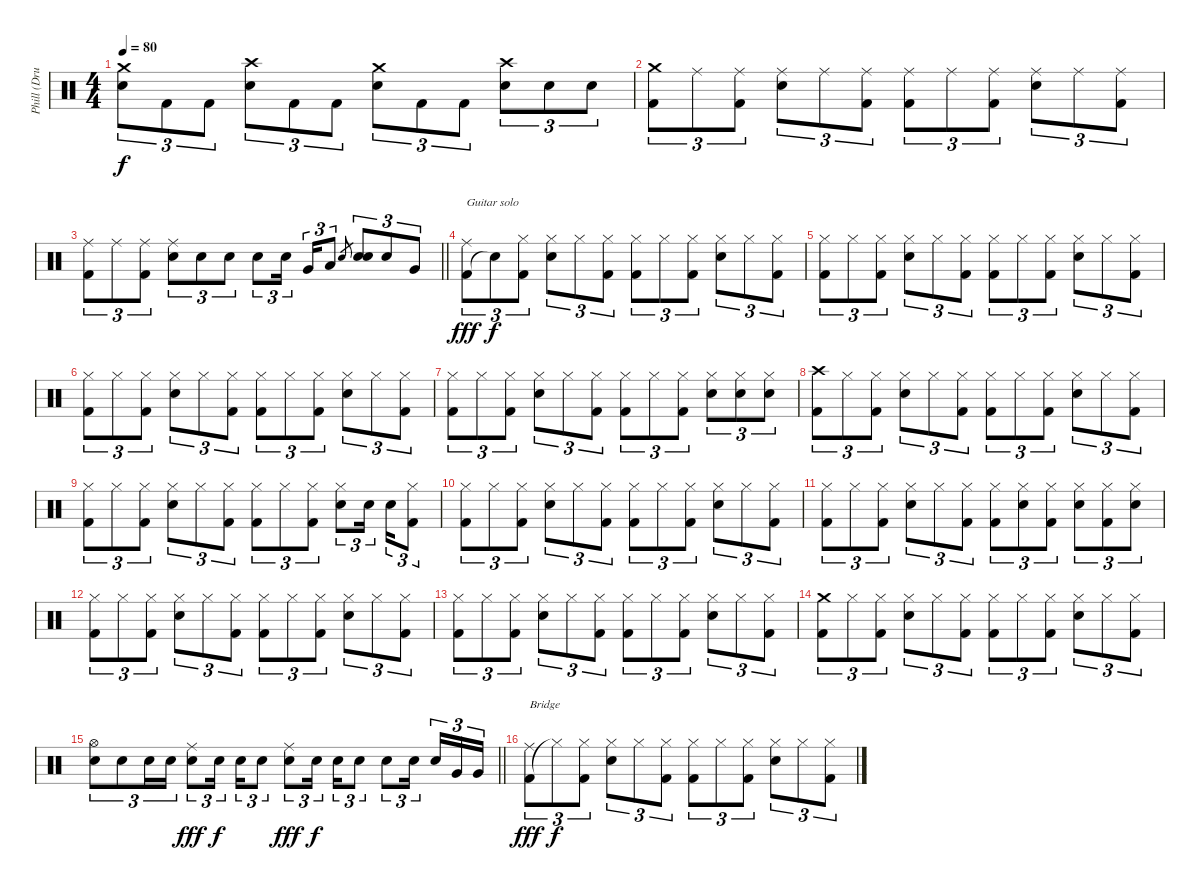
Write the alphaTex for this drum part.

\track ("Phill (Drums)" "Phill (Dru") {instrument percussion}
\staff {score}
\articulation defaults
\ts (4 4)
\tempo 80
\clef neutral
\ks c
("Electric Snare (hit)" "Crash medium (hit)").8{tu (3 2) dy f} "Kick (hit) 2".8{tu (3 2)} "Kick (hit) 2".8{tu (3 2)} ("Electric Snare (hit)" "Crash high (hit)").8{tu (3 2)} "Kick (hit) 2".8{tu (3 2)} "Kick (hit) 2".8{tu (3 2)} ("Electric Snare (hit)" "Crash medium (hit)").8{tu (3 2)} "Kick (hit) 2".8{tu (3 2)} "Kick (hit) 2".8{tu (3 2)} ("Electric Snare (hit)" "Crash high (hit)").8{tu (3 2)} "Electric Snare (hit)".8{tu (3 2)} "Electric Snare (hit)".8{tu (3 2)} |
("Kick (hit) 2" "Crash medium (hit)").8{tu (3 2)} "Ride (middle)".8{tu (3 2)} ("Kick (hit) 2" "Ride (middle)").8{tu (3 2)} ("Electric Snare (hit)" "Ride (middle)").8{tu (3 2)} "Ride (middle)".8{tu (3 2)} ("Kick (hit) 2" "Ride (middle)").8{tu (3 2)} ("Kick (hit) 2" "Ride (middle)").8{tu (3 2)} "Ride (middle)".8{tu (3 2)} ("Kick (hit) 2" "Ride (middle)").8{tu (3 2)} ("Electric Snare (hit)" "Ride (middle)").8{tu (3 2)} "Ride (middle)".8{tu (3 2)} ("Kick (hit) 2" "Ride (middle)").8{tu (3 2)} |
\barLineRight lightlight
("Kick (hit) 2" "Ride (middle)").8{tu (3 2)} "Ride (middle)".8{tu (3 2)} ("Kick (hit) 2" "Ride (middle)").8{tu (3 2)} ("Electric Snare (hit)" "Ride (middle)").8{tu (3 2)} "Electric Snare (hit)".8{tu (3 2)} "Electric Snare (hit)".8{tu (3 2)} "Electric Snare (hit)".8{tu (3 2)} "Electric Snare (hit)".16{tu (3 2) beam splitsecondary} "Very Low Tom (hit)".16{tu (3 2)} "Low Floor Tom (hit)".8{tu (3 2)} "Electric Snare (hit)".8{gr} ("Electric Snare (hit)" "Electric Snare (hit)").8{tu (3 2)} "Electric Snare (hit)".8{tu (3 2)} "Very Low Tom (hit)".8{tu (3 2)} |
("Kick (hit) 2" "Ride (middle)").8{tu (3 2) txt "Guitar solo" dy fff} "Snare (hit)"{t}.8{tu (3 2) dy f} ("Kick (hit) 2" "Hi-Hat (closed)").8{tu (3 2)} ("Electric Snare (hit)" "Hi-Hat (closed)").8{tu (3 2)} "Hi-Hat (closed)".8{tu (3 2)} ("Kick (hit) 2" "Hi-Hat (closed)").8{tu (3 2)} ("Kick (hit) 2" "Hi-Hat (closed)").8{tu (3 2)} "Hi-Hat (closed)".8{tu (3 2)} ("Kick (hit) 2" "Hi-Hat (closed)").8{tu (3 2)} ("Electric Snare (hit)" "Hi-Hat (closed)").8{tu (3 2)} "Hi-Hat (closed)".8{tu (3 2)} ("Kick (hit) 2" "Hi-Hat (closed)").8{tu (3 2)} |
("Kick (hit) 2" "Hi-Hat (closed)").8{tu (3 2)} "Hi-Hat (closed)".8{tu (3 2)} ("Kick (hit) 2" "Hi-Hat (closed)").8{tu (3 2)} ("Electric Snare (hit)" "Hi-Hat (closed)").8{tu (3 2)} "Hi-Hat (closed)".8{tu (3 2)} ("Kick (hit) 2" "Hi-Hat (closed)").8{tu (3 2)} ("Kick (hit) 2" "Hi-Hat (closed)").8{tu (3 2)} "Hi-Hat (closed)".8{tu (3 2)} ("Kick (hit) 2" "Hi-Hat (closed)").8{tu (3 2)} ("Electric Snare (hit)" "Hi-Hat (closed)").8{tu (3 2)} "Hi-Hat (closed)".8{tu (3 2)} ("Kick (hit) 2" "Hi-Hat (closed)").8{tu (3 2)} |
("Kick (hit) 2" "Hi-Hat (closed)").8{tu (3 2)} "Hi-Hat (closed)".8{tu (3 2)} ("Kick (hit) 2" "Hi-Hat (closed)").8{tu (3 2)} ("Electric Snare (hit)" "Hi-Hat (closed)").8{tu (3 2)} "Hi-Hat (closed)".8{tu (3 2)} ("Kick (hit) 2" "Hi-Hat (closed)").8{tu (3 2)} ("Kick (hit) 2" "Hi-Hat (closed)").8{tu (3 2)} "Hi-Hat (closed)".8{tu (3 2)} ("Kick (hit) 2" "Hi-Hat (closed)").8{tu (3 2)} ("Electric Snare (hit)" "Hi-Hat (closed)").8{tu (3 2)} "Hi-Hat (closed)".8{tu (3 2)} ("Kick (hit) 2" "Hi-Hat (closed)").8{tu (3 2)} |
("Kick (hit) 2" "Hi-Hat (closed)").8{tu (3 2)} "Hi-Hat (closed)".8{tu (3 2)} ("Kick (hit) 2" "Hi-Hat (closed)").8{tu (3 2)} ("Electric Snare (hit)" "Hi-Hat (closed)").8{tu (3 2)} "Hi-Hat (closed)".8{tu (3 2)} ("Kick (hit) 2" "Hi-Hat (closed)").8{tu (3 2)} ("Kick (hit) 2" "Hi-Hat (closed)").8{tu (3 2)} "Hi-Hat (closed)".8{tu (3 2)} ("Kick (hit) 2" "Hi-Hat (closed)").8{tu (3 2)} ("Electric Snare (hit)" "Hi-Hat (closed)").8{tu (3 2)} ("Electric Snare (hit)" "Hi-Hat (closed)").8{tu (3 2)} ("Electric Snare (hit)" "Hi-Hat (closed)").8{tu (3 2)} |
("Kick (hit) 2" "Crash high (hit)").8{tu (3 2)} "Hi-Hat (closed)".8{tu (3 2)} ("Kick (hit) 2" "Hi-Hat (closed)").8{tu (3 2)} ("Electric Snare (hit)" "Hi-Hat (closed)").8{tu (3 2)} "Hi-Hat (closed)".8{tu (3 2)} ("Kick (hit) 2" "Hi-Hat (closed)").8{tu (3 2)} ("Kick (hit) 2" "Hi-Hat (closed)").8{tu (3 2)} "Hi-Hat (closed)".8{tu (3 2)} ("Kick (hit) 2" "Hi-Hat (closed)").8{tu (3 2)} ("Electric Snare (hit)" "Hi-Hat (closed)").8{tu (3 2)} "Hi-Hat (closed)".8{tu (3 2)} ("Kick (hit) 2" "Hi-Hat (closed)").8{tu (3 2)} |
("Kick (hit) 2" "Hi-Hat (closed)").8{tu (3 2)} "Hi-Hat (closed)".8{tu (3 2)} ("Kick (hit) 2" "Hi-Hat (closed)").8{tu (3 2)} ("Electric Snare (hit)" "Hi-Hat (closed)").8{tu (3 2)} "Hi-Hat (closed)".8{tu (3 2)} ("Kick (hit) 2" "Hi-Hat (closed)").8{tu (3 2)} ("Kick (hit) 2" "Hi-Hat (closed)").8{tu (3 2)} "Hi-Hat (closed)".8{tu (3 2)} ("Kick (hit) 2" "Hi-Hat (closed)").8{tu (3 2)} ("Electric Snare (hit)" "Hi-Hat (closed)").8{tu (3 2)} "Electric Snare (hit)".16{tu (3 2) beam splitsecondary} "Electric Snare (hit)".16{tu (3 2)} ("Kick (hit) 2" "Hi-Hat (closed)").8{tu (3 2)} |
("Kick (hit) 2" "Hi-Hat (closed)").8{tu (3 2)} "Hi-Hat (closed)".8{tu (3 2)} ("Kick (hit) 2" "Hi-Hat (closed)").8{tu (3 2)} ("Electric Snare (hit)" "Hi-Hat (closed)").8{tu (3 2)} "Hi-Hat (closed)".8{tu (3 2)} ("Kick (hit) 2" "Hi-Hat (closed)").8{tu (3 2)} ("Kick (hit) 2" "Hi-Hat (closed)").8{tu (3 2)} "Hi-Hat (closed)".8{tu (3 2)} ("Kick (hit) 2" "Hi-Hat (closed)").8{tu (3 2)} ("Electric Snare (hit)" "Hi-Hat (closed)").8{tu (3 2)} "Hi-Hat (closed)".8{tu (3 2)} ("Kick (hit) 2" "Hi-Hat (closed)").8{tu (3 2)} |
("Kick (hit) 2" "Hi-Hat (closed)").8{tu (3 2)} "Hi-Hat (closed)".8{tu (3 2)} ("Kick (hit) 2" "Hi-Hat (closed)").8{tu (3 2)} ("Electric Snare (hit)" "Hi-Hat (closed)").8{tu (3 2)} "Hi-Hat (closed)".8{tu (3 2)} ("Kick (hit) 2" "Hi-Hat (closed)").8{tu (3 2)} ("Kick (hit) 2" "Hi-Hat (closed)").8{tu (3 2)} ("Electric Snare (hit)" "Hi-Hat (closed)").8{tu (3 2)} ("Kick (hit) 2" "Hi-Hat (closed)").8{tu (3 2)} ("Electric Snare (hit)" "Hi-Hat (closed)").8{tu (3 2)} ("Kick (hit) 2" "Hi-Hat (closed)").8{tu (3 2)} ("Electric Snare (hit)" "Hi-Hat (closed)").8{tu (3 2)} |
("Kick (hit) 2" "Hi-Hat (closed)").8{tu (3 2)} "Hi-Hat (closed)".8{tu (3 2)} ("Kick (hit) 2" "Hi-Hat (closed)").8{tu (3 2)} ("Electric Snare (hit)" "Hi-Hat (closed)").8{tu (3 2)} "Hi-Hat (closed)".8{tu (3 2)} ("Kick (hit) 2" "Hi-Hat (closed)").8{tu (3 2)} ("Kick (hit) 2" "Hi-Hat (closed)").8{tu (3 2)} "Hi-Hat (closed)".8{tu (3 2)} ("Kick (hit) 2" "Hi-Hat (closed)").8{tu (3 2)} ("Electric Snare (hit)" "Hi-Hat (closed)").8{tu (3 2)} "Hi-Hat (closed)".8{tu (3 2)} ("Kick (hit) 2" "Hi-Hat (closed)").8{tu (3 2)} |
("Kick (hit) 2" "Hi-Hat (closed)").8{tu (3 2)} "Hi-Hat (closed)".8{tu (3 2)} ("Kick (hit) 2" "Hi-Hat (closed)").8{tu (3 2)} ("Electric Snare (hit)" "Hi-Hat (closed)").8{tu (3 2)} "Hi-Hat (closed)".8{tu (3 2)} ("Kick (hit) 2" "Hi-Hat (closed)").8{tu (3 2)} ("Kick (hit) 2" "Hi-Hat (closed)").8{tu (3 2)} "Hi-Hat (closed)".8{tu (3 2)} ("Kick (hit) 2" "Hi-Hat (closed)").8{tu (3 2)} ("Electric Snare (hit)" "Hi-Hat (closed)").8{tu (3 2)} "Hi-Hat (closed)".8{tu (3 2)} ("Kick (hit) 2" "Hi-Hat (closed)").8{tu (3 2)} |
("Kick (hit) 2" "Crash medium (hit)").8{tu (3 2)} "Hi-Hat (closed)".8{tu (3 2)} ("Kick (hit) 2" "Hi-Hat (closed)").8{tu (3 2)} ("Electric Snare (hit)" "Hi-Hat (closed)").8{tu (3 2)} "Hi-Hat (closed)".8{tu (3 2)} ("Kick (hit) 2" "Hi-Hat (closed)").8{tu (3 2)} ("Kick (hit) 2" "Hi-Hat (closed)").8{tu (3 2)} "Hi-Hat (closed)".8{tu (3 2)} ("Kick (hit) 2" "Hi-Hat (closed)").8{tu (3 2)} ("Electric Snare (hit)" "Hi-Hat (closed)").8{tu (3 2)} "Hi-Hat (closed)".8{tu (3 2)} ("Kick (hit) 2" "Hi-Hat (closed)").8{tu (3 2)} |
\barLineRight lightlight
("Electric Snare (hit)" "Hi-Hat (open)").8{tu (3 2)} "Electric Snare (hit)".8{tu (3 2)} "Electric Snare (hit)".16{tu (3 2)} "Electric Snare (hit)".16{tu (3 2)} ("Electric Snare (hit)" "Ride (middle)").8{tu (3 2) dy fff} "Electric Snare (hit)".16{tu (3 2) dy f beam splitsecondary} "Electric Snare (hit)".16{tu (3 2)} "Electric Snare (hit)".8{tu (3 2)} ("Electric Snare (hit)" "Ride (middle)").8{tu (3 2) dy fff} "Electric Snare (hit)".16{tu (3 2) dy f beam splitsecondary} "Electric Snare (hit)".16{tu (3 2)} "Electric Snare (hit)".8{tu (3 2)} "Electric Snare (hit)".8{tu (3 2)} "Electric Snare (hit)".16{tu (3 2) beam splitsecondary} "Electric Snare (hit)".16{tu (3 2)} "Very Low Tom (hit)".16{tu (3 2)} "Very Low Tom (hit)".16{tu (3 2)} |
("Kick (hit) 2" "Ride (middle)").8{tu (3 2) txt "Bridge" dy fff} "Hi-Hat (closed)"{t}.8{tu (3 2) dy f} ("Kick (hit) 2" "Hi-Hat (closed)").8{tu (3 2)} ("Electric Snare (hit)" "Hi-Hat (closed)").8{tu (3 2)} "Hi-Hat (closed)".8{tu (3 2)} ("Kick (hit) 2" "Hi-Hat (closed)").8{tu (3 2)} ("Kick (hit) 2" "Hi-Hat (closed)").8{tu (3 2)} "Hi-Hat (closed)".8{tu (3 2)} ("Kick (hit) 2" "Hi-Hat (closed)").8{tu (3 2)} ("Electric Snare (hit)" "Hi-Hat (closed)").8{tu (3 2)} "Hi-Hat (closed)".8{tu (3 2)} ("Kick (hit) 2" "Hi-Hat (closed)").8{tu (3 2)}
